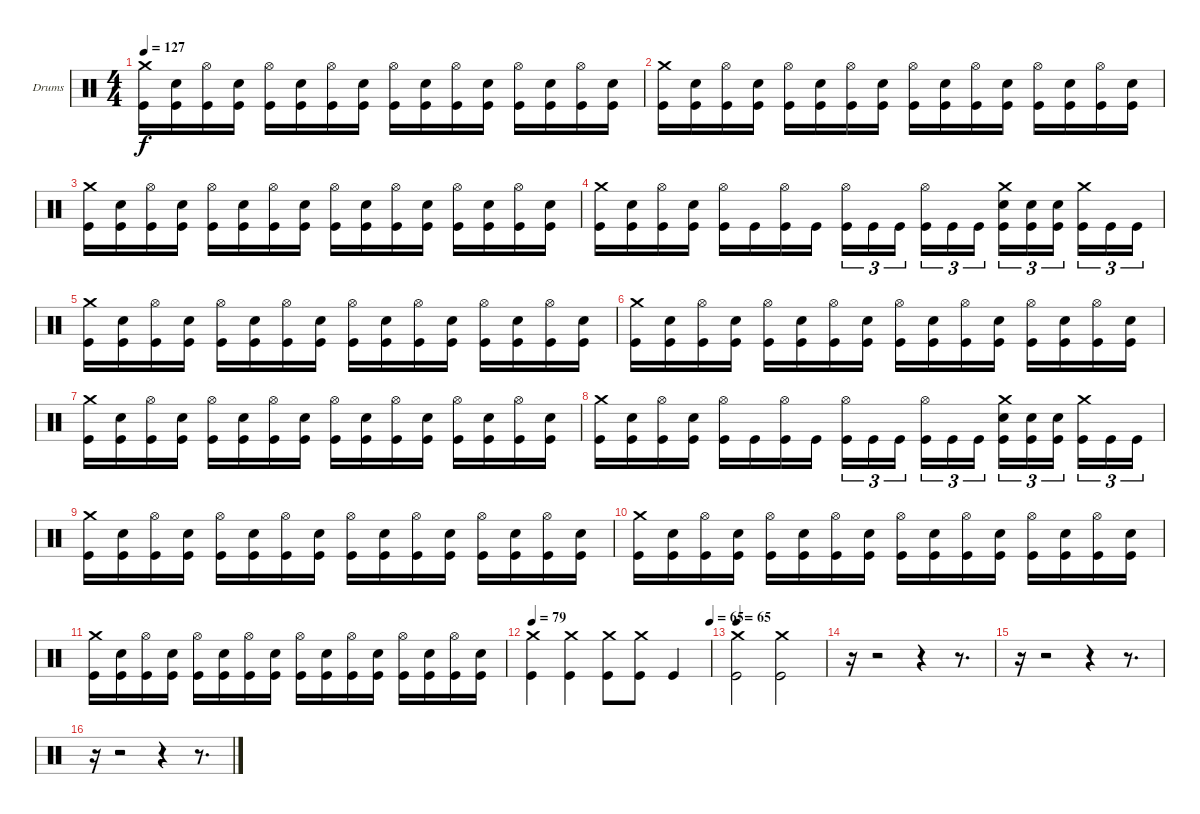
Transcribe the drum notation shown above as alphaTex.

\bracketExtendMode groupsimilarinstruments
\firstSystemTrackNameOrientation horizontal
\otherSystemsTrackNameOrientation horizontal
\track ("Drumkit" "Drums") {instrument percussion}
\staff {score}
\articulation defaults
\ts (4 4)
\tempo 127
\clef neutral
\ks c
("Crash medium (hit)" "Kick (hit)").16{dy f} ("Snare (hit) 2" "Kick (hit)").16 ("Hi-Hat (open)" "Kick (hit)").16 ("Snare (hit) 2" "Kick (hit)").16 ("Hi-Hat (open)" "Kick (hit)").16 ("Snare (hit) 2" "Kick (hit)").16 ("Hi-Hat (open)" "Kick (hit)").16 ("Snare (hit) 2" "Kick (hit)").16 ("Hi-Hat (open)" "Kick (hit)").16 ("Snare (hit) 2" "Kick (hit)").16 ("Hi-Hat (open)" "Kick (hit)").16 ("Snare (hit) 2" "Kick (hit)").16 ("Hi-Hat (open)" "Kick (hit)").16 ("Snare (hit) 2" "Kick (hit)").16 ("Hi-Hat (open)" "Kick (hit)").16 ("Snare (hit) 2" "Kick (hit)").16 |
("Crash medium (hit)" "Kick (hit)").16 ("Snare (hit) 2" "Kick (hit)").16 ("Hi-Hat (open)" "Kick (hit)").16 ("Snare (hit) 2" "Kick (hit)").16 ("Hi-Hat (open)" "Kick (hit)").16 ("Snare (hit) 2" "Kick (hit)").16 ("Hi-Hat (open)" "Kick (hit)").16 ("Snare (hit) 2" "Kick (hit)").16 ("Hi-Hat (open)" "Kick (hit)").16 ("Snare (hit) 2" "Kick (hit)").16 ("Hi-Hat (open)" "Kick (hit)").16 ("Snare (hit) 2" "Kick (hit)").16 ("Hi-Hat (open)" "Kick (hit)").16 ("Snare (hit) 2" "Kick (hit)").16 ("Hi-Hat (open)" "Kick (hit)").16 ("Snare (hit) 2" "Kick (hit)").16 |
("Crash medium (hit)" "Kick (hit)").16 ("Snare (hit) 2" "Kick (hit)").16 ("Hi-Hat (open)" "Kick (hit)").16 ("Snare (hit) 2" "Kick (hit)").16 ("Hi-Hat (open)" "Kick (hit)").16 ("Snare (hit) 2" "Kick (hit)").16 ("Hi-Hat (open)" "Kick (hit)").16 ("Snare (hit) 2" "Kick (hit)").16 ("Hi-Hat (open)" "Kick (hit)").16 ("Snare (hit) 2" "Kick (hit)").16 ("Hi-Hat (open)" "Kick (hit)").16 ("Snare (hit) 2" "Kick (hit)").16 ("Hi-Hat (open)" "Kick (hit)").16 ("Snare (hit) 2" "Kick (hit)").16 ("Hi-Hat (open)" "Kick (hit)").16 ("Snare (hit) 2" "Kick (hit)").16 |
("Crash medium (hit)" "Kick (hit)").16 ("Snare (hit) 2" "Kick (hit)").16 ("Hi-Hat (open)" "Kick (hit)").16 ("Snare (hit) 2" "Kick (hit)").16 ("Hi-Hat (open)" "Kick (hit)").16 "Kick (hit)".16 ("Hi-Hat (open)" "Kick (hit)").16 "Kick (hit)".16 ("Hi-Hat (open)" "Kick (hit)").16{tu (3 2)} "Kick (hit)".16{tu (3 2)} "Kick (hit)".16{tu (3 2)} ("Hi-Hat (open)" "Kick (hit)").16{tu (3 2)} "Kick (hit)".16{tu (3 2)} "Kick (hit)".16{tu (3 2)} ("Crash medium (hit)" "Snare (hit) 2" "Kick (hit)").16{tu (3 2)} ("Snare (hit) 2" "Kick (hit)").16{tu (3 2)} ("Snare (hit) 2" "Kick (hit)").16{tu (3 2)} ("Crash medium (hit)" "Kick (hit)").16{tu (3 2)} "Kick (hit)".16{tu (3 2)} "Kick (hit)".16{tu (3 2)} |
("Crash medium (hit)" "Kick (hit)").16 ("Snare (hit) 2" "Kick (hit)").16 ("Hi-Hat (open)" "Kick (hit)").16 ("Snare (hit) 2" "Kick (hit)").16 ("Hi-Hat (open)" "Kick (hit)").16 ("Snare (hit) 2" "Kick (hit)").16 ("Hi-Hat (open)" "Kick (hit)").16 ("Snare (hit) 2" "Kick (hit)").16 ("Hi-Hat (open)" "Kick (hit)").16 ("Snare (hit) 2" "Kick (hit)").16 ("Hi-Hat (open)" "Kick (hit)").16 ("Snare (hit) 2" "Kick (hit)").16 ("Hi-Hat (open)" "Kick (hit)").16 ("Snare (hit) 2" "Kick (hit)").16 ("Hi-Hat (open)" "Kick (hit)").16 ("Snare (hit) 2" "Kick (hit)").16 |
("Crash medium (hit)" "Kick (hit)").16 ("Snare (hit) 2" "Kick (hit)").16 ("Hi-Hat (open)" "Kick (hit)").16 ("Snare (hit) 2" "Kick (hit)").16 ("Hi-Hat (open)" "Kick (hit)").16 ("Snare (hit) 2" "Kick (hit)").16 ("Hi-Hat (open)" "Kick (hit)").16 ("Snare (hit) 2" "Kick (hit)").16 ("Hi-Hat (open)" "Kick (hit)").16 ("Snare (hit) 2" "Kick (hit)").16 ("Hi-Hat (open)" "Kick (hit)").16 ("Snare (hit) 2" "Kick (hit)").16 ("Hi-Hat (open)" "Kick (hit)").16 ("Snare (hit) 2" "Kick (hit)").16 ("Hi-Hat (open)" "Kick (hit)").16 ("Snare (hit) 2" "Kick (hit)").16 |
("Crash medium (hit)" "Kick (hit)").16 ("Snare (hit) 2" "Kick (hit)").16 ("Hi-Hat (open)" "Kick (hit)").16 ("Snare (hit) 2" "Kick (hit)").16 ("Hi-Hat (open)" "Kick (hit)").16 ("Snare (hit) 2" "Kick (hit)").16 ("Hi-Hat (open)" "Kick (hit)").16 ("Snare (hit) 2" "Kick (hit)").16 ("Hi-Hat (open)" "Kick (hit)").16 ("Snare (hit) 2" "Kick (hit)").16 ("Hi-Hat (open)" "Kick (hit)").16 ("Snare (hit) 2" "Kick (hit)").16 ("Hi-Hat (open)" "Kick (hit)").16 ("Snare (hit) 2" "Kick (hit)").16 ("Hi-Hat (open)" "Kick (hit)").16 ("Snare (hit) 2" "Kick (hit)").16 |
("Crash medium (hit)" "Kick (hit)").16 ("Snare (hit) 2" "Kick (hit)").16 ("Hi-Hat (open)" "Kick (hit)").16 ("Snare (hit) 2" "Kick (hit)").16 ("Hi-Hat (open)" "Kick (hit)").16 "Kick (hit)".16 ("Hi-Hat (open)" "Kick (hit)").16 "Kick (hit)".16 ("Hi-Hat (open)" "Kick (hit)").16{tu (3 2)} "Kick (hit)".16{tu (3 2)} "Kick (hit)".16{tu (3 2)} ("Hi-Hat (open)" "Kick (hit)").16{tu (3 2)} "Kick (hit)".16{tu (3 2)} "Kick (hit)".16{tu (3 2)} ("Crash medium (hit)" "Snare (hit) 2" "Kick (hit)").16{tu (3 2)} ("Snare (hit) 2" "Kick (hit)").16{tu (3 2)} ("Snare (hit) 2" "Kick (hit)").16{tu (3 2)} ("Crash medium (hit)" "Kick (hit)").16{tu (3 2)} "Kick (hit)".16{tu (3 2)} "Kick (hit)".16{tu (3 2)} |
("Crash medium (hit)" "Kick (hit)").16 ("Snare (hit) 2" "Kick (hit)").16 ("Hi-Hat (open)" "Kick (hit)").16 ("Snare (hit) 2" "Kick (hit)").16 ("Hi-Hat (open)" "Kick (hit)").16 ("Snare (hit) 2" "Kick (hit)").16 ("Hi-Hat (open)" "Kick (hit)").16 ("Snare (hit) 2" "Kick (hit)").16 ("Hi-Hat (open)" "Kick (hit)").16 ("Snare (hit) 2" "Kick (hit)").16 ("Hi-Hat (open)" "Kick (hit)").16 ("Snare (hit) 2" "Kick (hit)").16 ("Hi-Hat (open)" "Kick (hit)").16 ("Snare (hit) 2" "Kick (hit)").16 ("Hi-Hat (open)" "Kick (hit)").16 ("Snare (hit) 2" "Kick (hit)").16 |
("Crash medium (hit)" "Kick (hit)").16 ("Snare (hit) 2" "Kick (hit)").16 ("Hi-Hat (open)" "Kick (hit)").16 ("Snare (hit) 2" "Kick (hit)").16 ("Hi-Hat (open)" "Kick (hit)").16 ("Snare (hit) 2" "Kick (hit)").16 ("Hi-Hat (open)" "Kick (hit)").16 ("Snare (hit) 2" "Kick (hit)").16 ("Hi-Hat (open)" "Kick (hit)").16 ("Snare (hit) 2" "Kick (hit)").16 ("Hi-Hat (open)" "Kick (hit)").16 ("Snare (hit) 2" "Kick (hit)").16 ("Hi-Hat (open)" "Kick (hit)").16 ("Snare (hit) 2" "Kick (hit)").16 ("Hi-Hat (open)" "Kick (hit)").16 ("Snare (hit) 2" "Kick (hit)").16 |
("Crash medium (hit)" "Kick (hit)").16 ("Snare (hit) 2" "Kick (hit)").16 ("Hi-Hat (open)" "Kick (hit)").16 ("Snare (hit) 2" "Kick (hit)").16 ("Hi-Hat (open)" "Kick (hit)").16 ("Snare (hit) 2" "Kick (hit)").16 ("Hi-Hat (open)" "Kick (hit)").16 ("Snare (hit) 2" "Kick (hit)").16 ("Hi-Hat (open)" "Kick (hit)").16 ("Snare (hit) 2" "Kick (hit)").16 ("Hi-Hat (open)" "Kick (hit)").16 ("Snare (hit) 2" "Kick (hit)").16 ("Hi-Hat (open)" "Kick (hit)").16 ("Snare (hit) 2" "Kick (hit)").16 ("Hi-Hat (open)" "Kick (hit)").16 ("Snare (hit) 2" "Kick (hit)").16 |
\tempo 79
\tempo (65 1)
("Crash medium (hit)" "Kick (hit)").4 ("Crash medium (hit)" "Kick (hit)").4 ("Crash medium (hit)" "Kick (hit)").8 ("Crash medium (hit)" "Kick (hit)").8 "Kick (hit)".4 |
\tempo 65
("Crash medium (hit)" "Kick (hit)").2 ("Crash medium (hit)" "Kick (hit)").2 |
r.16 r.2 r.4 r.8{d} |
r.16 r.2 r.4 r.8{d} |
r.16 r.2 r.4 r.8{d}
